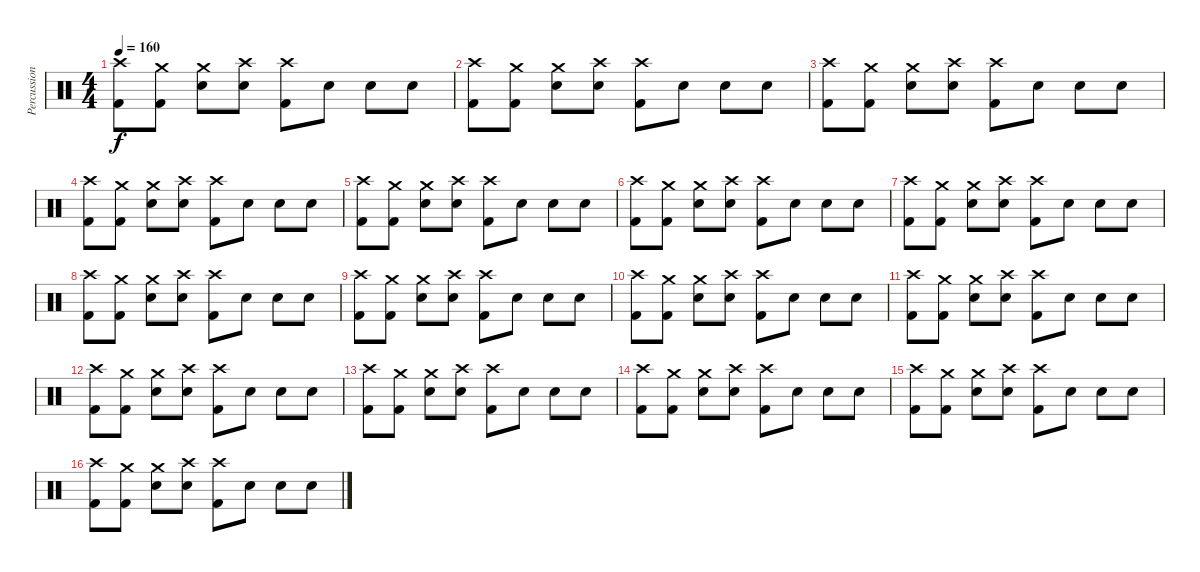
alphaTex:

\track ("Percussion" "Percussion") {instrument percussion}
\staff {score}
\articulation defaults
\ts (4 4)
\tempo 160
\clef neutral
\ks c
("Crash high (hit)" "Kick (hit) 2").8{dy f} ("Crash medium (hit)" "Kick (hit) 2").8 ("Crash medium (hit)" "Snare (hit) 2").8 ("Crash high (hit)" "Snare (hit) 2").8 ("Crash high (hit)" "Kick (hit) 2").8 "Snare (hit) 2".8 "Snare (hit) 2".8 "Snare (hit) 2".8 |
("Crash high (hit)" "Kick (hit) 2").8 ("Crash medium (hit)" "Kick (hit) 2").8 ("Crash medium (hit)" "Snare (hit) 2").8 ("Crash high (hit)" "Snare (hit) 2").8 ("Crash high (hit)" "Kick (hit) 2").8 "Snare (hit) 2".8 "Snare (hit) 2".8 "Snare (hit) 2".8 |
("Crash high (hit)" "Kick (hit) 2").8 ("Crash medium (hit)" "Kick (hit) 2").8 ("Crash medium (hit)" "Snare (hit) 2").8 ("Crash high (hit)" "Snare (hit) 2").8 ("Crash high (hit)" "Kick (hit) 2").8 "Snare (hit) 2".8 "Snare (hit) 2".8 "Snare (hit) 2".8 |
("Crash high (hit)" "Kick (hit) 2").8 ("Crash medium (hit)" "Kick (hit) 2").8 ("Crash medium (hit)" "Snare (hit) 2").8 ("Crash high (hit)" "Snare (hit) 2").8 ("Crash high (hit)" "Kick (hit) 2").8 "Snare (hit) 2".8 "Snare (hit) 2".8 "Snare (hit) 2".8 |
("Crash high (hit)" "Kick (hit) 2").8 ("Crash medium (hit)" "Kick (hit) 2").8 ("Crash medium (hit)" "Snare (hit) 2").8 ("Crash high (hit)" "Snare (hit) 2").8 ("Crash high (hit)" "Kick (hit) 2").8 "Snare (hit) 2".8 "Snare (hit) 2".8 "Snare (hit) 2".8 |
("Crash high (hit)" "Kick (hit) 2").8 ("Crash medium (hit)" "Kick (hit) 2").8 ("Crash medium (hit)" "Snare (hit) 2").8 ("Crash high (hit)" "Snare (hit) 2").8 ("Crash high (hit)" "Kick (hit) 2").8 "Snare (hit) 2".8 "Snare (hit) 2".8 "Snare (hit) 2".8 |
("Crash high (hit)" "Kick (hit) 2").8 ("Crash medium (hit)" "Kick (hit) 2").8 ("Crash medium (hit)" "Snare (hit) 2").8 ("Crash high (hit)" "Snare (hit) 2").8 ("Crash high (hit)" "Kick (hit) 2").8 "Snare (hit) 2".8 "Snare (hit) 2".8 "Snare (hit) 2".8 |
("Crash high (hit)" "Kick (hit) 2").8 ("Crash medium (hit)" "Kick (hit) 2").8 ("Crash medium (hit)" "Snare (hit) 2").8 ("Crash high (hit)" "Snare (hit) 2").8 ("Crash high (hit)" "Kick (hit) 2").8 "Snare (hit) 2".8 "Snare (hit) 2".8 "Snare (hit) 2".8 |
("Crash high (hit)" "Kick (hit) 2").8 ("Crash medium (hit)" "Kick (hit) 2").8 ("Crash medium (hit)" "Snare (hit) 2").8 ("Crash high (hit)" "Snare (hit) 2").8 ("Crash high (hit)" "Kick (hit) 2").8 "Snare (hit) 2".8 "Snare (hit) 2".8 "Snare (hit) 2".8 |
("Crash high (hit)" "Kick (hit) 2").8 ("Crash medium (hit)" "Kick (hit) 2").8 ("Crash medium (hit)" "Snare (hit) 2").8 ("Crash high (hit)" "Snare (hit) 2").8 ("Crash high (hit)" "Kick (hit) 2").8 "Snare (hit) 2".8 "Snare (hit) 2".8 "Snare (hit) 2".8 |
("Crash high (hit)" "Kick (hit) 2").8 ("Crash medium (hit)" "Kick (hit) 2").8 ("Crash medium (hit)" "Snare (hit) 2").8 ("Crash high (hit)" "Snare (hit) 2").8 ("Crash high (hit)" "Kick (hit) 2").8 "Snare (hit) 2".8 "Snare (hit) 2".8 "Snare (hit) 2".8 |
("Crash high (hit)" "Kick (hit) 2").8 ("Crash medium (hit)" "Kick (hit) 2").8 ("Crash medium (hit)" "Snare (hit) 2").8 ("Crash high (hit)" "Snare (hit) 2").8 ("Crash high (hit)" "Kick (hit) 2").8 "Snare (hit) 2".8 "Snare (hit) 2".8 "Snare (hit) 2".8 |
("Crash high (hit)" "Kick (hit) 2").8 ("Crash medium (hit)" "Kick (hit) 2").8 ("Crash medium (hit)" "Snare (hit) 2").8 ("Crash high (hit)" "Snare (hit) 2").8 ("Crash high (hit)" "Kick (hit) 2").8 "Snare (hit) 2".8 "Snare (hit) 2".8 "Snare (hit) 2".8 |
("Crash high (hit)" "Kick (hit) 2").8 ("Crash medium (hit)" "Kick (hit) 2").8 ("Crash medium (hit)" "Snare (hit) 2").8 ("Crash high (hit)" "Snare (hit) 2").8 ("Crash high (hit)" "Kick (hit) 2").8 "Snare (hit) 2".8 "Snare (hit) 2".8 "Snare (hit) 2".8 |
("Crash high (hit)" "Kick (hit) 2").8 ("Crash medium (hit)" "Kick (hit) 2").8 ("Crash medium (hit)" "Snare (hit) 2").8 ("Crash high (hit)" "Snare (hit) 2").8 ("Crash high (hit)" "Kick (hit) 2").8 "Snare (hit) 2".8 "Snare (hit) 2".8 "Snare (hit) 2".8 |
("Crash high (hit)" "Kick (hit) 2").8 ("Crash medium (hit)" "Kick (hit) 2").8 ("Crash medium (hit)" "Snare (hit) 2").8 ("Crash high (hit)" "Snare (hit) 2").8 ("Crash high (hit)" "Kick (hit) 2").8 "Snare (hit) 2".8 "Snare (hit) 2".8 "Snare (hit) 2".8
